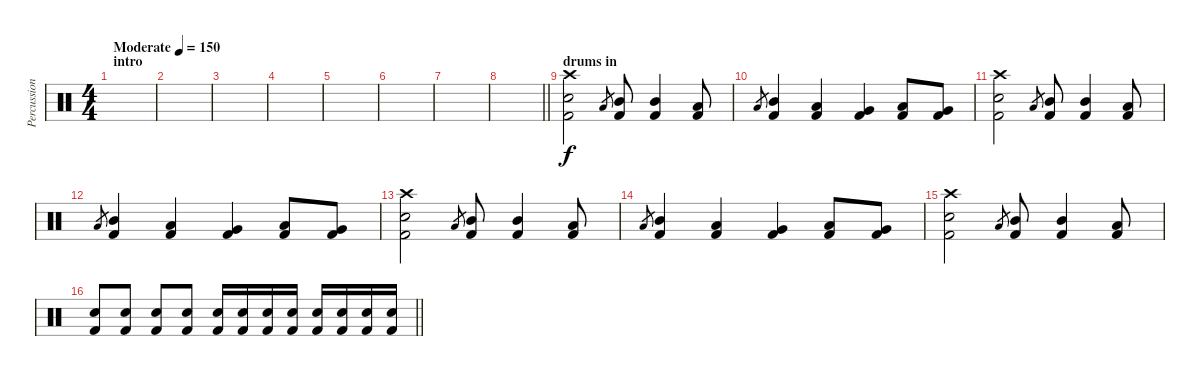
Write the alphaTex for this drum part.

\track ("Percussion" "Percussion") {instrument percussion}
\staff {score}
\articulation defaults
\ts (4 4)
\section ("" "intro")
\tempo (150 "Moderate")
\clef neutral
\ks c
|
|
|
|
|
|
|
\barLineRight lightlight
|
\section ("" "drums in")
("Kick (hit) 2" "Snare (hit) 2" "Crash high (hit)").2 "Low Tom (hit)".8{gr} ("Kick (hit) 2" "Mid Tom (hit)").8 ("Kick (hit) 2" "Mid Tom (hit)").4 ("Kick (hit) 2" "Low Tom (hit)").8 |
"Low Tom (hit)".8{gr} ("Kick (hit) 2" "Mid Tom (hit)").4 ("Kick (hit) 2" "Low Tom (hit)").4 ("Kick (hit) 2" "Very Low Tom (hit)").4 ("Kick (hit) 2" "Low Floor Tom (hit)").8 ("Kick (hit) 2" "Very Low Tom (hit)").8 |
("Kick (hit) 2" "Snare (hit) 2" "Crash high (hit)").2 "Low Tom (hit)".8{gr} ("Kick (hit) 2" "Mid Tom (hit)").8 ("Kick (hit) 2" "Mid Tom (hit)").4 ("Kick (hit) 2" "Low Tom (hit)").8 |
"Low Tom (hit)".8{gr} ("Kick (hit) 2" "Mid Tom (hit)").4 ("Kick (hit) 2" "Low Tom (hit)").4 ("Kick (hit) 2" "Very Low Tom (hit)").4 ("Kick (hit) 2" "Low Floor Tom (hit)").8 ("Kick (hit) 2" "Very Low Tom (hit)").8 |
("Kick (hit) 2" "Snare (hit) 2" "Crash high (hit)").2 "Low Tom (hit)".8{gr} ("Kick (hit) 2" "Mid Tom (hit)").8 ("Kick (hit) 2" "Mid Tom (hit)").4 ("Kick (hit) 2" "Low Tom (hit)").8 |
"Low Tom (hit)".8{gr} ("Kick (hit) 2" "Mid Tom (hit)").4 ("Kick (hit) 2" "Low Tom (hit)").4 ("Kick (hit) 2" "Very Low Tom (hit)").4 ("Kick (hit) 2" "Low Floor Tom (hit)").8 ("Kick (hit) 2" "Very Low Tom (hit)").8 |
("Kick (hit) 2" "Snare (hit) 2" "Crash high (hit)").2 "Low Tom (hit)".8{gr} ("Kick (hit) 2" "Mid Tom (hit)").8 ("Kick (hit) 2" "Mid Tom (hit)").4 ("Kick (hit) 2" "Low Tom (hit)").8 |
\barLineRight lightlight
("Kick (hit) 2" "Snare (hit) 2").8 ("Kick (hit) 2" "Snare (hit) 2").8 ("Kick (hit) 2" "Snare (hit) 2").8 ("Kick (hit) 2" "Snare (hit) 2").8 ("Kick (hit) 2" "Snare (hit) 2").16 ("Kick (hit) 2" "Snare (hit) 2").16 ("Kick (hit) 2" "Snare (hit) 2").16 ("Kick (hit) 2" "Snare (hit) 2").16 ("Kick (hit) 2" "Snare (hit) 2").16 ("Kick (hit) 2" "Snare (hit) 2").16 ("Kick (hit) 2" "Snare (hit) 2").16 ("Kick (hit) 2" "Snare (hit) 2").16
